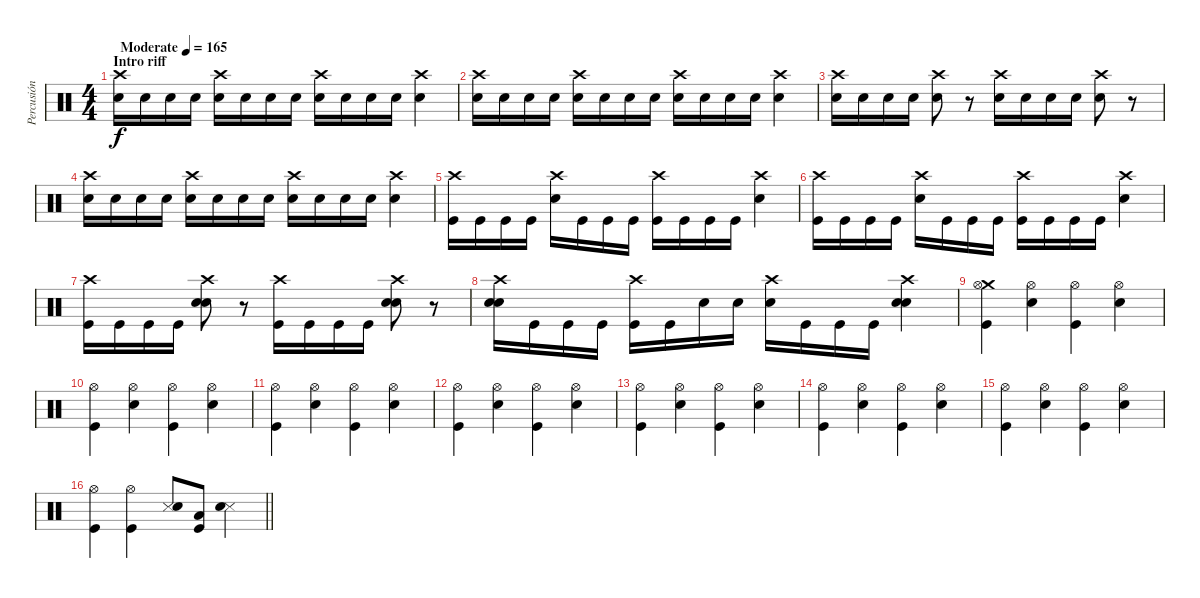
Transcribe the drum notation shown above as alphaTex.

\track ("Percusión" "Percusión") {instrument percussion}
\staff {score}
\articulation defaults
\ts (4 4)
\section ("" "Intro riff")
\tempo (165 "Moderate")
\clef neutral
\ks c
("Snare (hit) 2" "Crash high (hit)").16{dy f} "Snare (hit) 2".16 "Snare (hit) 2".16 "Snare (hit) 2".16 ("Snare (hit) 2" "Crash high (hit)").16 "Snare (hit) 2".16 "Snare (hit) 2".16 "Snare (hit) 2".16 ("Snare (hit) 2" "Crash high (hit)").16 "Snare (hit) 2".16 "Snare (hit) 2".16 "Snare (hit) 2".16 ("Snare (hit) 2" "Crash high (hit)").4 |
("Snare (hit) 2" "Crash high (hit)").16 "Snare (hit) 2".16 "Snare (hit) 2".16 "Snare (hit) 2".16 ("Snare (hit) 2" "Crash high (hit)").16 "Snare (hit) 2".16 "Snare (hit) 2".16 "Snare (hit) 2".16 ("Snare (hit) 2" "Crash high (hit)").16 "Snare (hit) 2".16 "Snare (hit) 2".16 "Snare (hit) 2".16 ("Snare (hit) 2" "Crash high (hit)").4 |
("Snare (hit) 2" "Crash high (hit)").16 "Snare (hit) 2".16 "Snare (hit) 2".16 "Snare (hit) 2".16 ("Snare (hit) 2" "Crash high (hit)").8 r.8 ("Snare (hit) 2" "Crash high (hit)").16 "Snare (hit) 2".16 "Snare (hit) 2".16 "Snare (hit) 2".16 ("Snare (hit) 2" "Crash high (hit)").8 r.8 |
("Snare (hit) 2" "Crash high (hit)").16 "Snare (hit) 2".16 "Snare (hit) 2".16 "Snare (hit) 2".16 ("Snare (hit) 2" "Crash high (hit)").16 "Snare (hit) 2".16 "Snare (hit) 2".16 "Snare (hit) 2".16 ("Snare (hit) 2" "Crash high (hit)").16 "Snare (hit) 2".16 "Snare (hit) 2".16 "Snare (hit) 2".16 ("Snare (hit) 2" "Crash high (hit)").4 |
("Kick (hit)" "Crash high (hit)").16 "Kick (hit)".16 "Kick (hit)".16 "Kick (hit)".16 ("Snare (hit) 2" "Crash high (hit)").16 "Kick (hit)".16 "Kick (hit)".16 "Kick (hit)".16 ("Kick (hit)" "Crash high (hit)").16 "Kick (hit)".16 "Kick (hit)".16 "Kick (hit)".16 ("Snare (hit) 2" "Crash high (hit)").4 |
("Kick (hit)" "Crash high (hit)").16 "Kick (hit)".16 "Kick (hit)".16 "Kick (hit)".16 ("Snare (hit) 2" "Crash high (hit)").16 "Kick (hit)".16 "Kick (hit)".16 "Kick (hit)".16 ("Kick (hit)" "Crash high (hit)").16 "Kick (hit)".16 "Kick (hit)".16 "Kick (hit)".16 ("Snare (hit) 2" "Crash high (hit)").4 |
("Kick (hit)" "Crash high (hit)").16 "Kick (hit)".16 "Kick (hit)".16 "Kick (hit)".16 ("Snare (hit) 2" "Crash high (hit)" "Snare (hit) 2").8 r.8 ("Kick (hit)" "Crash high (hit)").16 "Kick (hit)".16 "Kick (hit)".16 "Kick (hit)".16 ("Snare (hit) 2" "Crash high (hit)" "Snare (hit) 2").8 r.8 |
("Snare (hit) 2" "Snare (hit) 2" "Crash high (hit)").16 "Kick (hit)".16 "Kick (hit)".16 "Kick (hit)".16 ("Kick (hit)" "Crash high (hit)").16 "Kick (hit)".16 "Snare (hit) 2".16 "Snare (hit) 2".16 ("Snare (hit) 2" "Crash high (hit)").16 "Kick (hit)".16 "Kick (hit)".16 "Kick (hit)".16 ("Snare (hit) 2" "Snare (hit) 2" "Crash high (hit)").4 |
("Crash medium (hit)" "Hi-Hat (open)" "Kick (hit)").4 ("Hi-Hat (open)" "Snare (hit) 2").4 ("Hi-Hat (open)" "Kick (hit)").4 ("Hi-Hat (open)" "Snare (hit) 2").4 |
("Hi-Hat (open)" "Kick (hit)").4 ("Hi-Hat (open)" "Snare (hit) 2").4 ("Hi-Hat (open)" "Kick (hit)").4 ("Hi-Hat (open)" "Snare (hit) 2").4 |
("Hi-Hat (open)" "Kick (hit)").4 ("Hi-Hat (open)" "Snare (hit) 2").4 ("Hi-Hat (open)" "Kick (hit)").4 ("Hi-Hat (open)" "Snare (hit) 2").4 |
("Hi-Hat (open)" "Kick (hit)").4 ("Hi-Hat (open)" "Snare (hit) 2").4 ("Hi-Hat (open)" "Kick (hit)").4 ("Hi-Hat (open)" "Snare (hit) 2").4 |
("Hi-Hat (open)" "Kick (hit)").4 ("Hi-Hat (open)" "Snare (hit) 2").4 ("Hi-Hat (open)" "Kick (hit)").4 ("Hi-Hat (open)" "Snare (hit) 2").4 |
("Hi-Hat (open)" "Kick (hit)").4 ("Hi-Hat (open)" "Snare (hit) 2").4 ("Hi-Hat (open)" "Kick (hit)").4 ("Hi-Hat (open)" "Snare (hit) 2").4 |
("Hi-Hat (open)" "Kick (hit)").4 ("Hi-Hat (open)" "Snare (hit) 2").4 ("Hi-Hat (open)" "Kick (hit)").4 ("Hi-Hat (open)" "Snare (hit) 2").4 |
\barLineRight lightlight
("Hi-Hat (open)" "Kick (hit)").4 ("Hi-Hat (open)" "Kick (hit)").4 ("Snare (side stick) 3" "Snare (hit) 2").8 ("Low Floor Tom (hit)" "Kick (hit)").8 ("Snare (side stick) 3" "Snare (hit) 2").4
